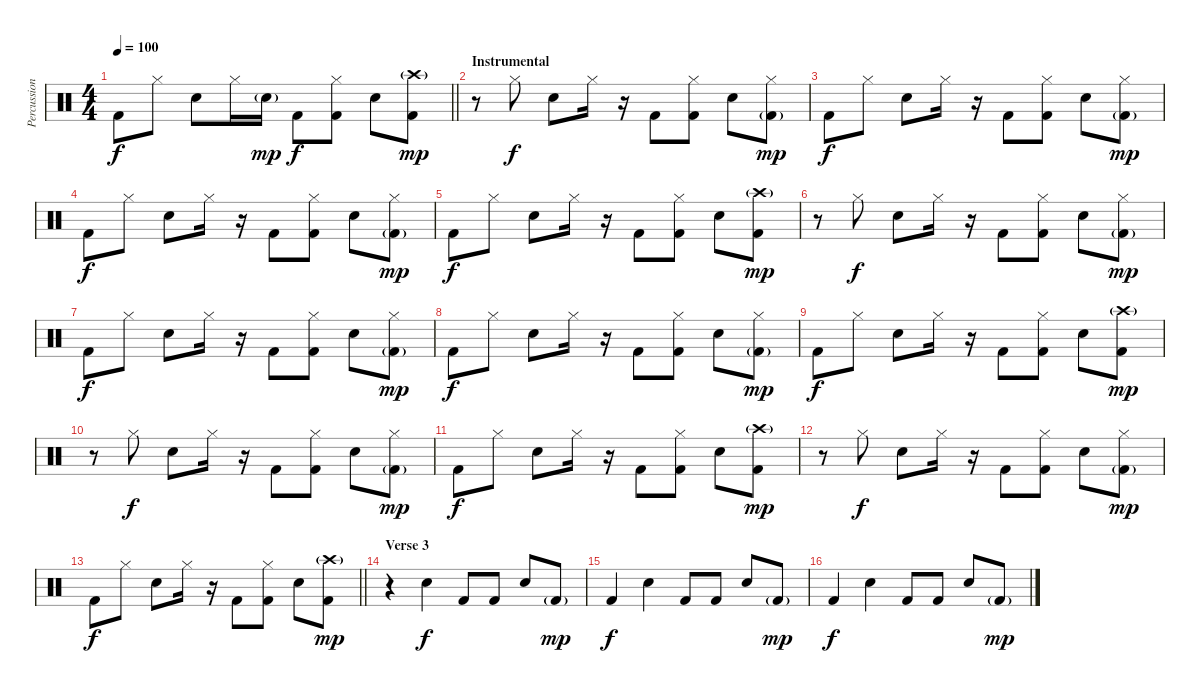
\track ("Percussion" "Percussion") {instrument percussion}
\staff {score}
\articulation defaults
\ts (4 4)
\tempo 100
\clef neutral
\barLineRight lightlight
\ks c "Kick (hit) 2".8{dy f} "Hi-Hat (closed)".8 "Snare (hit) 2".8 "Hi-Hat (closed)".16 "Snare (hit) 2"{g}.16{dy mp} "Kick (hit) 2".8{dy f}
("Hi-Hat (closed)" "Kick (hit) 2").8 "Snare (hit) 2".8 ("Crash high (hit)"{g} "Kick (hit) 2").8{dy mp} |
\section ("" "Instrumental")
r.8 "Hi-Hat (closed)".8{dy f} "Snare (hit) 2".8 "Hi-Hat (closed)".16 r.16 "Kick (hit) 2".8 ("Hi-Hat (closed)" "Kick (hit) 2").8 "Snare (hit) 2".8 ("Hi-Hat (closed)" "Kick (hit) 2"{g}).8{dy mp} |
"Kick (hit) 2".8{dy f} "Hi-Hat (closed)".8 "Snare (hit) 2".8 "Hi-Hat (closed)".16 r.16 "Kick (hit) 2".8 ("Hi-Hat (closed)" "Kick (hit) 2").8 "Snare (hit) 2".8 ("Hi-Hat (closed)" "Kick (hit) 2"{g}).8{dy mp} |
"Kick (hit) 2".8{dy f} "Hi-Hat (closed)".8 "Snare (hit) 2".8 "Hi-Hat (closed)".16 r.16 "Kick (hit) 2".8 ("Hi-Hat (closed)" "Kick (hit) 2").8 "Snare (hit) 2".8 ("Hi-Hat (closed)" "Kick (hit) 2"{g}).8{dy mp} |
"Kick (hit) 2".8{dy f} "Hi-Hat (closed)".8 "Snare (hit) 2".8 "Hi-Hat (closed)".16 r.16 "Kick (hit) 2".8 ("Hi-Hat (closed)" "Kick (hit) 2").8 "Snare (hit) 2".8 ("Crash high (hit)"{g} "Kick (hit) 2").8{dy mp} |
r.8 "Hi-Hat (closed)".8{dy f} "Snare (hit) 2".8 "Hi-Hat (closed)".16 r.16 "Kick (hit) 2".8 ("Hi-Hat (closed)" "Kick (hit) 2").8 "Snare (hit) 2".8 ("Hi-Hat (closed)" "Kick (hit) 2"{g}).8{dy mp} |
"Kick (hit) 2".8{dy f} "Hi-Hat (closed)".8 "Snare (hit) 2".8 "Hi-Hat (closed)".16 r.16 "Kick (hit) 2".8 ("Hi-Hat (closed)" "Kick (hit) 2").8 "Snare (hit) 2".8 ("Hi-Hat (closed)" "Kick (hit) 2"{g}).8{dy mp} |
"Kick (hit) 2".8{dy f} "Hi-Hat (closed)".8 "Snare (hit) 2".8 "Hi-Hat (closed)".16 r.16 "Kick (hit) 2".8 ("Hi-Hat (closed)" "Kick (hit) 2").8 "Snare (hit) 2".8 ("Hi-Hat (closed)" "Kick (hit) 2"{g}).8{dy mp} |
"Kick (hit) 2".8{dy f} "Hi-Hat (closed)".8 "Snare (hit) 2".8 "Hi-Hat (closed)".16 r.16 "Kick (hit) 2".8 ("Hi-Hat (closed)" "Kick (hit) 2").8 "Snare (hit) 2".8 ("Crash high (hit)"{g} "Kick (hit) 2").8{dy mp} |
r.8 "Hi-Hat (closed)".8{dy f} "Snare (hit) 2".8 "Hi-Hat (closed)".16 r.16 "Kick (hit) 2".8 ("Hi-Hat (closed)" "Kick (hit) 2").8 "Snare (hit) 2".8 ("Hi-Hat (closed)" "Kick (hit) 2"{g}).8{dy mp} |
"Kick (hit) 2".8{dy f} "Hi-Hat (closed)".8 "Snare (hit) 2".8 "Hi-Hat (closed)".16 r.16 "Kick (hit) 2".8 ("Hi-Hat (closed)" "Kick (hit) 2").8 "Snare (hit) 2".8 ("Crash high (hit)"{g} "Kick (hit) 2").8{dy mp} |
r.8 "Hi-Hat (closed)".8{dy f} "Snare (hit) 2".8 "Hi-Hat (closed)".16 r.16 "Kick (hit) 2".8 ("Hi-Hat (closed)" "Kick (hit) 2").8 "Snare (hit) 2".8 ("Hi-Hat (closed)" "Kick (hit) 2"{g}).8{dy mp} |
\barLineRight lightlight "Kick (hit) 2".8{dy f} "Hi-Hat (closed)".8 "Snare (hit) 2".8 "Hi-Hat (closed)".16
r.16 "Kick (hit) 2".8 ("Hi-Hat (closed)" "Kick (hit) 2").8 "Snare (hit) 2".8 ("Crash high (hit)"{g} "Kick (hit) 2").8{dy mp} |
\section ("" "Verse 3")
r.4 "Snare (hit) 2".4{dy f} "Kick (hit) 2".8 "Kick (hit) 2".8 "Snare (hit) 2".8 "Kick (hit) 2"{g}.8{dy mp} |
"Kick (hit) 2".4{dy f} "Snare (hit) 2".4 "Kick (hit) 2".8 "Kick (hit) 2".8 "Snare (hit) 2".8 "Kick (hit) 2"{g}.8{dy mp} |
"Kick (hit) 2".4{dy f} "Snare (hit) 2".4 "Kick (hit) 2".8 "Kick (hit) 2".8 "Snare (hit) 2".8 "Kick (hit) 2"{g}.8{dy mp}
